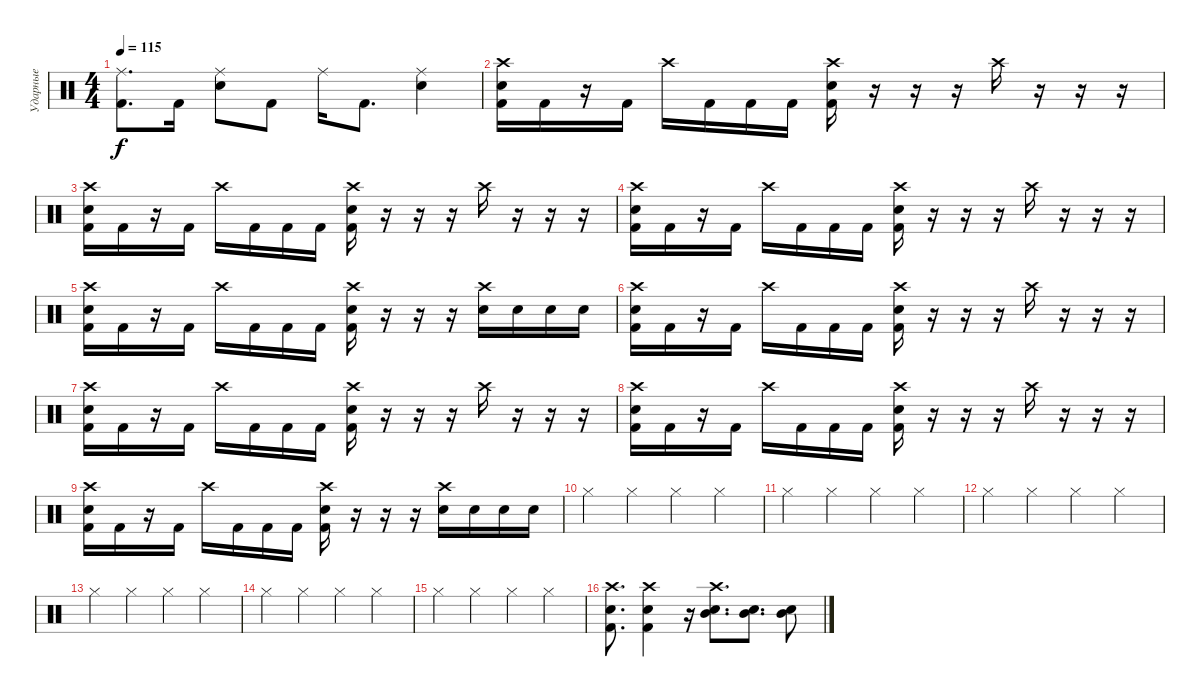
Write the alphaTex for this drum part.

\track ("Ударные" "Ударные") {instrument percussion}
\staff {score}
\articulation defaults
\ts (4 4)
\tempo 115
\clef neutral
\ks c
("Kick (hit) 2" "Ride (middle)").8{d dy f} "Kick (hit) 2".16 ("Snare (hit) 2" "Ride (middle)").8 "Kick (hit) 2".8 "Ride (middle)".16 "Kick (hit) 2".8{d} ("Snare (hit) 2" "Ride (middle)").4 |
("Kick (hit) 2" "Snare (hit) 2" "Crash high (hit)").16 "Kick (hit) 2".16 r.16 "Kick (hit) 2".16 "Crash high (hit)".16 "Kick (hit) 2".16 "Kick (hit) 2".16 "Kick (hit) 2".16 ("Kick (hit) 2" "Snare (hit) 2" "Crash high (hit)").16 r.16 r.16 r.16 "Crash high (hit)".16 r.16 r.16 r.16 |
("Kick (hit) 2" "Snare (hit) 2" "Crash high (hit)").16 "Kick (hit) 2".16 r.16 "Kick (hit) 2".16 "Crash high (hit)".16 "Kick (hit) 2".16 "Kick (hit) 2".16 "Kick (hit) 2".16 ("Kick (hit) 2" "Snare (hit) 2" "Crash high (hit)").16 r.16 r.16 r.16 "Crash high (hit)".16 r.16 r.16 r.16 |
("Kick (hit) 2" "Snare (hit) 2" "Crash high (hit)").16 "Kick (hit) 2".16 r.16 "Kick (hit) 2".16 "Crash high (hit)".16 "Kick (hit) 2".16 "Kick (hit) 2".16 "Kick (hit) 2".16 ("Kick (hit) 2" "Snare (hit) 2" "Crash high (hit)").16 r.16 r.16 r.16 "Crash high (hit)".16 r.16 r.16 r.16 |
("Kick (hit) 2" "Snare (hit) 2" "Crash high (hit)").16 "Kick (hit) 2".16 r.16 "Kick (hit) 2".16 "Crash high (hit)".16 "Kick (hit) 2".16 "Kick (hit) 2".16 "Kick (hit) 2".16 ("Kick (hit) 2" "Snare (hit) 2" "Crash high (hit)").16 r.16 r.16 r.16 ("Snare (hit) 2" "Crash high (hit)").16 "Snare (hit) 2".16 "Snare (hit) 2".16 "Snare (hit) 2".16 |
("Kick (hit) 2" "Snare (hit) 2" "Crash high (hit)").16 "Kick (hit) 2".16 r.16 "Kick (hit) 2".16 "Crash high (hit)".16 "Kick (hit) 2".16 "Kick (hit) 2".16 "Kick (hit) 2".16 ("Kick (hit) 2" "Snare (hit) 2" "Crash high (hit)").16 r.16 r.16 r.16 "Crash high (hit)".16 r.16 r.16 r.16 |
("Kick (hit) 2" "Snare (hit) 2" "Crash high (hit)").16 "Kick (hit) 2".16 r.16 "Kick (hit) 2".16 "Crash high (hit)".16 "Kick (hit) 2".16 "Kick (hit) 2".16 "Kick (hit) 2".16 ("Kick (hit) 2" "Snare (hit) 2" "Crash high (hit)").16 r.16 r.16 r.16 "Crash high (hit)".16 r.16 r.16 r.16 |
("Kick (hit) 2" "Snare (hit) 2" "Crash high (hit)").16 "Kick (hit) 2".16 r.16 "Kick (hit) 2".16 "Crash high (hit)".16 "Kick (hit) 2".16 "Kick (hit) 2".16 "Kick (hit) 2".16 ("Kick (hit) 2" "Snare (hit) 2" "Crash high (hit)").16 r.16 r.16 r.16 "Crash high (hit)".16 r.16 r.16 r.16 |
("Kick (hit) 2" "Snare (hit) 2" "Crash high (hit)").16 "Kick (hit) 2".16 r.16 "Kick (hit) 2".16 "Crash high (hit)".16 "Kick (hit) 2".16 "Kick (hit) 2".16 "Kick (hit) 2".16 ("Kick (hit) 2" "Snare (hit) 2" "Crash high (hit)").16 r.16 r.16 r.16 ("Snare (hit) 2" "Crash high (hit)").16 "Snare (hit) 2".16 "Snare (hit) 2".16 "Snare (hit) 2".16 |
"Hi-Hat (closed)".4 "Hi-Hat (closed)".4 "Hi-Hat (closed)".4 "Hi-Hat (closed)".4 |
"Hi-Hat (closed)".4 "Hi-Hat (closed)".4 "Hi-Hat (closed)".4 "Hi-Hat (closed)".4 |
"Hi-Hat (closed)".4 "Hi-Hat (closed)".4 "Hi-Hat (closed)".4 "Hi-Hat (closed)".4 |
"Hi-Hat (closed)".4 "Hi-Hat (closed)".4 "Hi-Hat (closed)".4 "Hi-Hat (closed)".4 |
"Hi-Hat (closed)".4 "Hi-Hat (closed)".4 "Hi-Hat (closed)".4 "Hi-Hat (closed)".4 |
"Hi-Hat (closed)".4 "Hi-Hat (closed)".4 "Hi-Hat (closed)".4 "Hi-Hat (closed)".4 |
("Crash high (hit)" "Snare (hit) 2" "Kick (hit) 2").8{d} ("Crash high (hit)" "Snare (hit) 2" "Kick (hit) 2").4 r.16 ("Snare (hit) 2" "Mid Tom (hit)" "Crash high (hit)").8{d} ("Snare (hit) 2" "Mid Tom (hit)").8{d} ("Snare (hit) 2" "Mid Tom (hit)").8
